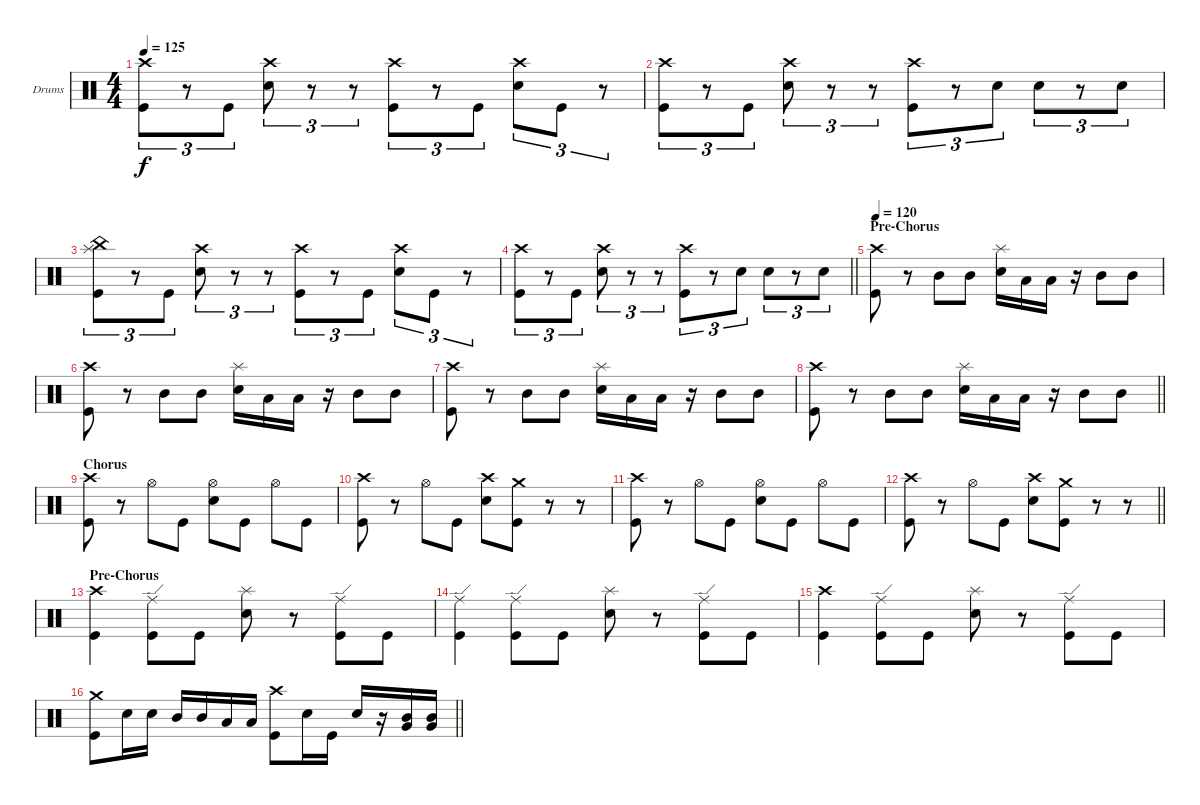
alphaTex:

\bracketExtendMode groupsimilarinstruments
\firstSystemTrackNameOrientation horizontal
\otherSystemsTrackNameOrientation horizontal
\track ("Drumkit" "Drums") {instrument percussion}
\staff {score}
\articulation defaults
\ts (4 4)
\tempo 125
\clef neutral
\ks c
("Crash high (hit)" "Kick (hit)").8{tu (3 2) dy f} r.8{tu (3 2)} "Kick (hit)".8{tu (3 2)} ("Crash high (hit)" "Snare (hit) 2").8{tu (3 2)} r.8{tu (3 2)} r.8{tu (3 2)} ("Crash high (hit)" "Kick (hit)").8{tu (3 2)} r.8{tu (3 2)} "Kick (hit)".8{tu (3 2)} ("Crash high (hit)" "Snare (hit) 2").8{tu (3 2)} "Kick (hit)".8{tu (3 2)} r.8{tu (3 2)} |
("Crash high (hit)" "Kick (hit)").8{tu (3 2)} r.8{tu (3 2)} "Kick (hit)".8{tu (3 2)} ("Crash high (hit)" "Snare (hit) 2").8{tu (3 2)} r.8{tu (3 2)} r.8{tu (3 2)} ("Crash high (hit)" "Kick (hit)").8{tu (3 2)} r.8{tu (3 2)} "Snare (hit) 2".8{tu (3 2)} "Snare (hit) 2".8{tu (3 2)} r.8{tu (3 2)} "Snare (hit) 2".8{tu (3 2)} |
("Splash (hit)" "China (hit)" "Kick (hit)").8{tu (3 2)} r.8{tu (3 2)} "Kick (hit)".8{tu (3 2)} ("Crash high (hit)" "Snare (hit) 2").8{tu (3 2)} r.8{tu (3 2)} r.8{tu (3 2)} ("Crash high (hit)" "Kick (hit)").8{tu (3 2)} r.8{tu (3 2)} "Kick (hit)".8{tu (3 2)} ("Crash high (hit)" "Snare (hit) 2").8{tu (3 2)} "Kick (hit)".8{tu (3 2)} r.8{tu (3 2)} |
\barLineRight lightlight
("Crash high (hit)" "Kick (hit)").8{tu (3 2)} r.8{tu (3 2)} "Kick (hit)".8{tu (3 2)} ("Crash high (hit)" "Snare (hit) 2").8{tu (3 2)} r.8{tu (3 2)} r.8{tu (3 2)} ("Crash high (hit)" "Kick (hit)").8{tu (3 2)} r.8{tu (3 2)} "Snare (hit) 2".8{tu (3 2)} "Snare (hit) 2".8{tu (3 2)} r.8{tu (3 2)} "Snare (hit) 2".8{tu (3 2)} |
\section ("" "Pre-Chorus")
\tempo 120
("Crash high (hit)" "Kick (hit)").8 r.8 "Mid Tom (hit)".8 "Mid Tom (hit)".8 ("Splash (hit)" "Snare (hit) 2").16 "Low Tom (hit)".16 "Low Tom (hit)".16 r.16 "Mid Tom (hit)".8 "Mid Tom (hit)".8 |
("Crash high (hit)" "Kick (hit)").8 r.8 "Mid Tom (hit)".8 "Mid Tom (hit)".8 ("Splash (hit)" "Snare (hit) 2").16 "Low Tom (hit)".16 "Low Tom (hit)".16 r.16 "Mid Tom (hit)".8 "Mid Tom (hit)".8 |
("Crash high (hit)" "Kick (hit)").8 r.8 "Mid Tom (hit)".8 "Mid Tom (hit)".8 ("Splash (hit)" "Snare (hit) 2").16 "Low Tom (hit)".16 "Low Tom (hit)".16 r.16 "Mid Tom (hit)".8 "Mid Tom (hit)".8 |
\barLineRight lightlight
("Crash high (hit)" "Kick (hit)").8 r.8 "Mid Tom (hit)".8 "Mid Tom (hit)".8 ("Splash (hit)" "Snare (hit) 2").16 "Low Tom (hit)".16 "Low Tom (hit)".16 r.16 "Mid Tom (hit)".8 "Mid Tom (hit)".8 |
\section ("" "Chorus")
("Crash high (hit)" "Kick (hit)").8 r.8 "Hi-Hat (open)".8 "Kick (hit)".8 ("Hi-Hat (open)" "Snare (hit) 2").8 "Kick (hit)".8 "Hi-Hat (open)".8 "Kick (hit)".8 |
("Crash high (hit)" "Kick (hit)").8 r.8 "Hi-Hat (open)".8 "Kick (hit)".8 ("Crash high (hit)" "Snare (hit) 2").8 ("Crash medium (hit)" "Kick (hit)").8 r.8 r.8 |
("Crash high (hit)" "Kick (hit)").8 r.8 "Hi-Hat (open)".8 "Kick (hit)".8 ("Hi-Hat (open)" "Snare (hit) 2").8 "Kick (hit)".8 "Hi-Hat (open)".8 "Kick (hit)".8 |
\barLineRight lightlight
("Crash high (hit)" "Kick (hit)").8 r.8 "Hi-Hat (open)".8 "Kick (hit)".8 ("Crash high (hit)" "Snare (hit) 2").8 ("Crash medium (hit)" "Kick (hit)").8 r.8 r.8 |
\section ("" "Pre-Chorus")
("Crash high (hit)" "Kick (hit)").4 ("Ride (edge)" "Kick (hit)").8 "Kick (hit)".8 ("Splash (hit)" "Snare (hit) 2").8 r.8 ("Ride (edge)" "Kick (hit)").8 "Kick (hit)".8 |
("Ride (edge)" "Kick (hit)").4 ("Ride (edge)" "Kick (hit)").8 "Kick (hit)".8 ("Splash (hit)" "Snare (hit) 2").8 r.8 ("Ride (edge)" "Kick (hit)").8 "Kick (hit)".8 |
("Crash high (hit)" "Kick (hit)").4 ("Ride (edge)" "Kick (hit)").8 "Kick (hit)".8 ("Splash (hit)" "Snare (hit) 2").8 r.8 ("Ride (edge)" "Kick (hit)").8 "Kick (hit)".8 |
\barLineRight lightlight
("Crash medium (hit)" "Kick (hit)").8 "Snare (hit) 2".16 "Snare (hit) 2".16 "Mid Tom (hit)".16 "Mid Tom (hit)".16 "Low Tom (hit)".16 "Low Tom (hit)".16 ("Crash high (hit)" "Kick (hit)").8 "Snare (hit) 2".16 "Kick (hit)".16 "Snare (hit) 2".16 r.16 ("Very Low Tom (hit)" "Mid Tom (hit)").16 ("Very Low Tom (hit)" "Mid Tom (hit)").16
